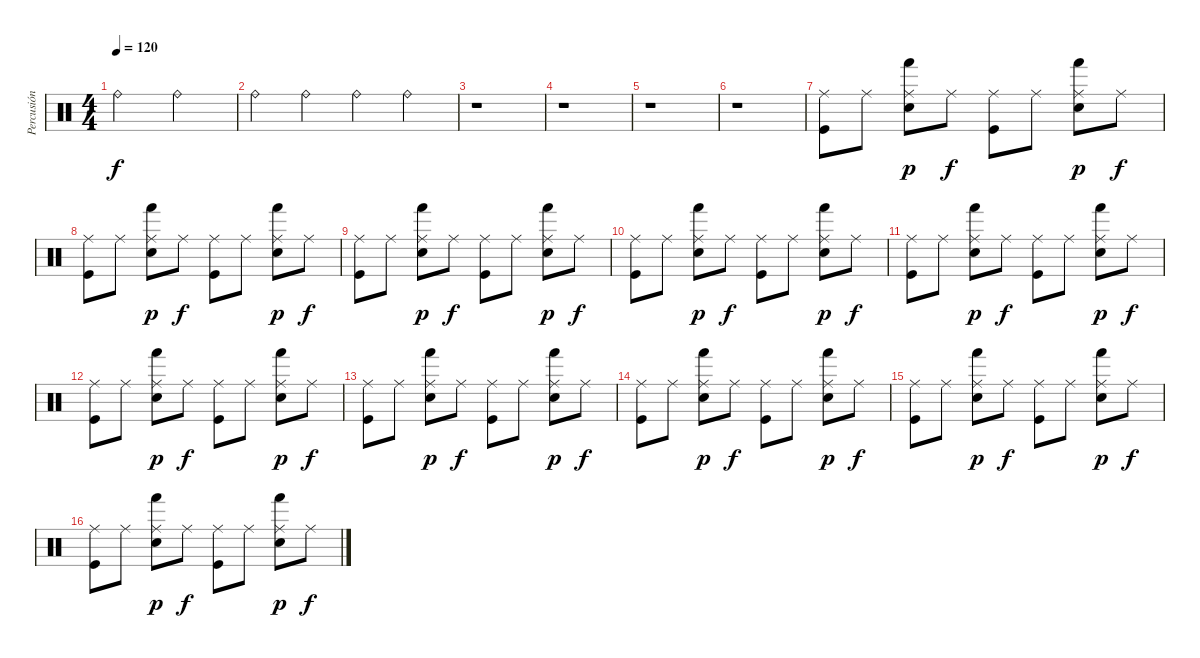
\track ("Percusión" "Percusión") {instrument percussion}
\staff {score}
\articulation defaults
\ts (4 4)
\tempo 120
\clef neutral
\ks c "Ride (bell)".2{dy f} "Ride (bell)".2
|
"Ride (bell)".4 "Ride (bell)".4 "Ride (bell)".4 "Ride (bell)".4 |
r.1 |
r.1 |
r.1 |
r.1 |
("Ride (middle)" "Kick (hit)").8 "Ride (middle)".8 ("Ride (middle)" "Hand (hit)" "Electric Snare (hit)").8{dy p} "Ride (middle)".8{dy f} ("Ride (middle)" "Kick (hit)").8 "Ride (middle)".8 ("Ride (middle)" "Hand (hit)" "Electric Snare (hit)").8{dy p} "Ride (middle)".8{dy f} |
("Ride (middle)" "Kick (hit)").8 "Ride (middle)".8 ("Ride (middle)" "Hand (hit)" "Electric Snare (hit)").8{dy p} "Ride (middle)".8{dy f} ("Ride (middle)" "Kick (hit)").8 "Ride (middle)".8 ("Ride (middle)" "Hand (hit)" "Electric Snare (hit)").8{dy p} "Ride (middle)".8{dy f} |
("Ride (middle)" "Kick (hit)").8 "Ride (middle)".8 ("Ride (middle)" "Hand (hit)" "Electric Snare (hit)").8{dy p} "Ride (middle)".8{dy f} ("Ride (middle)" "Kick (hit)").8 "Ride (middle)".8 ("Ride (middle)" "Hand (hit)" "Electric Snare (hit)").8{dy p} "Ride (middle)".8{dy f} |
("Ride (middle)" "Kick (hit)").8 "Ride (middle)".8 ("Ride (middle)" "Hand (hit)" "Electric Snare (hit)").8{dy p} "Ride (middle)".8{dy f} ("Ride (middle)" "Kick (hit)").8 "Ride (middle)".8 ("Ride (middle)" "Hand (hit)" "Electric Snare (hit)").8{dy p} "Ride (middle)".8{dy f} |
("Ride (middle)" "Kick (hit)").8 "Ride (middle)".8 ("Ride (middle)" "Hand (hit)" "Electric Snare (hit)").8{dy p} "Ride (middle)".8{dy f} ("Ride (middle)" "Kick (hit)").8 "Ride (middle)".8 ("Ride (middle)" "Hand (hit)" "Electric Snare (hit)").8{dy p} "Ride (middle)".8{dy f} |
("Ride (middle)" "Kick (hit)").8 "Ride (middle)".8 ("Ride (middle)" "Hand (hit)" "Electric Snare (hit)").8{dy p} "Ride (middle)".8{dy f} ("Ride (middle)" "Kick (hit)").8 "Ride (middle)".8 ("Ride (middle)" "Hand (hit)" "Electric Snare (hit)").8{dy p} "Ride (middle)".8{dy f} |
("Ride (middle)" "Kick (hit)").8 "Ride (middle)".8 ("Ride (middle)" "Hand (hit)" "Electric Snare (hit)").8{dy p} "Ride (middle)".8{dy f} ("Ride (middle)" "Kick (hit)").8 "Ride (middle)".8 ("Ride (middle)" "Hand (hit)" "Electric Snare (hit)").8{dy p} "Ride (middle)".8{dy f} |
("Ride (middle)" "Kick (hit)").8 "Ride (middle)".8 ("Ride (middle)" "Hand (hit)" "Electric Snare (hit)").8{dy p} "Ride (middle)".8{dy f} ("Ride (middle)" "Kick (hit)").8 "Ride (middle)".8 ("Ride (middle)" "Hand (hit)" "Electric Snare (hit)").8{dy p} "Ride (middle)".8{dy f} |
("Ride (middle)" "Kick (hit)").8 "Ride (middle)".8 ("Ride (middle)" "Hand (hit)" "Electric Snare (hit)").8{dy p} "Ride (middle)".8{dy f} ("Ride (middle)" "Kick (hit)").8 "Ride (middle)".8 ("Ride (middle)" "Hand (hit)" "Electric Snare (hit)").8{dy p} "Ride (middle)".8{dy f} |
("Ride (middle)" "Kick (hit)").8 "Ride (middle)".8 ("Ride (middle)" "Hand (hit)" "Electric Snare (hit)").8{dy p} "Ride (middle)".8{dy f} ("Ride (middle)" "Kick (hit)").8 "Ride (middle)".8 ("Ride (middle)" "Hand (hit)" "Electric Snare (hit)").8{dy p} "Ride (middle)".8{dy f}
